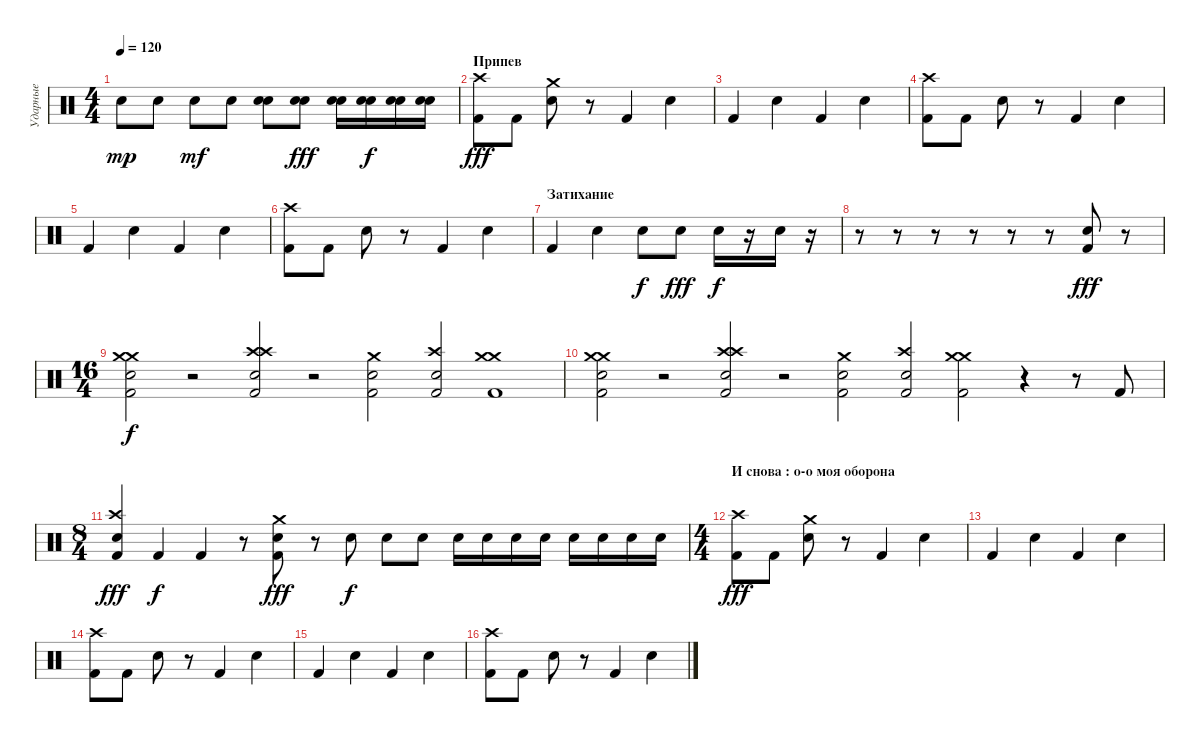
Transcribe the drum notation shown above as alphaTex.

\track ("Ударные" "Ударные") {instrument percussion}
\staff {score}
\articulation defaults
\ts (4 4)
\tempo 120
\clef neutral
\ks c "Electric Snare (hit)".8{dy mp} "Electric Snare (hit)".8 "Electric Snare (hit)".8{dy mf} "Electric Snare (hit)".8
("Electric Snare (hit)" "Electric Snare (hit)").8 ("Electric Snare (hit)" "Electric Snare (hit)").8{dy fff} ("Electric Snare (hit)" "Electric Snare (hit)").16 ("Electric Snare (hit)" "Electric Snare (hit)").16{dy f} ("Electric Snare (hit)" "Electric Snare (hit)").16 ("Electric Snare (hit)" "Electric Snare (hit)").16 |
\section ("" "Припев")
("Crash high (hit)" "Kick (hit) 2").8{dy fff} "Kick (hit) 2".8 ("Crash medium (hit)" "Electric Snare (hit)").8 r.8 "Kick (hit) 2".4 "Electric Snare (hit)".4 |
"Kick (hit) 2".4 "Electric Snare (hit)".4 "Kick (hit) 2".4 "Electric Snare (hit)".4 |
("Crash high (hit)" "Kick (hit) 2").8 "Kick (hit) 2".8 "Electric Snare (hit)".8 r.8 "Kick (hit) 2".4 "Electric Snare (hit)".4 |
"Kick (hit) 2".4 "Electric Snare (hit)".4 "Kick (hit) 2".4 "Electric Snare (hit)".4 |
("Crash high (hit)" "Kick (hit) 2").8 "Kick (hit) 2".8 "Electric Snare (hit)".8 r.8 "Kick (hit) 2".4 "Electric Snare (hit)".4 |
\section ("" "Затихание")
"Kick (hit) 2".4 "Electric Snare (hit)".4 "Electric Snare (hit)".8{dy f} "Electric Snare (hit)".8{dy fff} "Electric Snare (hit)".16{dy f} r.16 "Electric Snare (hit)".16 r.16 |
r.8 r.8 r.8 r.8 r.8 r.8 ("Electric Snare (hit)" "Kick (hit) 2").8{dy fff} r.8 |
\ts (16 4)
("Crash medium (hit)" "Crash medium (hit)" "Electric Snare (hit)" "Kick (hit) 2").2{dy f} r.2 ("Crash high (hit)" "Electric Snare (hit)" "Crash high (hit)" "Kick (hit) 2").2 r.2 ("Crash medium (hit)" "Electric Snare (hit)" "Kick (hit) 2").2 ("Crash high (hit)" "Electric Snare (hit)" "Kick (hit) 2").2 ("Crash medium (hit)" "Kick (hit) 2" "Crash medium (hit)").1 |
("Crash medium (hit)" "Crash medium (hit)" "Electric Snare (hit)" "Kick (hit) 2").2 r.2 ("Crash high (hit)" "Electric Snare (hit)" "Crash high (hit)" "Kick (hit) 2").2 r.2 ("Crash medium (hit)" "Electric Snare (hit)" "Kick (hit) 2").2 ("Crash high (hit)" "Electric Snare (hit)" "Kick (hit) 2").2 ("Crash medium (hit)" "Kick (hit) 2" "Crash medium (hit)").2 r.4 r.8 "Kick (hit) 2".8 |
\ts (8 4)
("Crash high (hit)" "Electric Snare (hit)" "Kick (hit) 2").4{dy fff} "Kick (hit) 2".4{dy f} "Kick (hit) 2".4 r.8 ("Crash medium (hit)" "Electric Snare (hit)" "Kick (hit) 2").8{dy fff} r.8 "Electric Snare (hit)".8{dy f} "Electric Snare (hit)".8 "Electric Snare (hit)".8 "Electric Snare (hit)".16 "Electric Snare (hit)".16 "Electric Snare (hit)".16 "Electric Snare (hit)".16 "Electric Snare (hit)".16 "Electric Snare (hit)".16 "Electric Snare (hit)".16 "Electric Snare (hit)".16 |
\ts (4 4)
\section ("" "И снова : о-о моя оборона")
("Crash high (hit)" "Kick (hit) 2").8{dy fff} "Kick (hit) 2".8 ("Crash medium (hit)" "Electric Snare (hit)").8 r.8 "Kick (hit) 2".4 "Electric Snare (hit)".4 |
"Kick (hit) 2".4 "Electric Snare (hit)".4 "Kick (hit) 2".4 "Electric Snare (hit)".4 |
("Crash high (hit)" "Kick (hit) 2").8 "Kick (hit) 2".8 "Electric Snare (hit)".8 r.8 "Kick (hit) 2".4 "Electric Snare (hit)".4 |
"Kick (hit) 2".4 "Electric Snare (hit)".4 "Kick (hit) 2".4 "Electric Snare (hit)".4 |
("Crash high (hit)" "Kick (hit) 2").8 "Kick (hit) 2".8 "Electric Snare (hit)".8 r.8 "Kick (hit) 2".4 "Electric Snare (hit)".4
